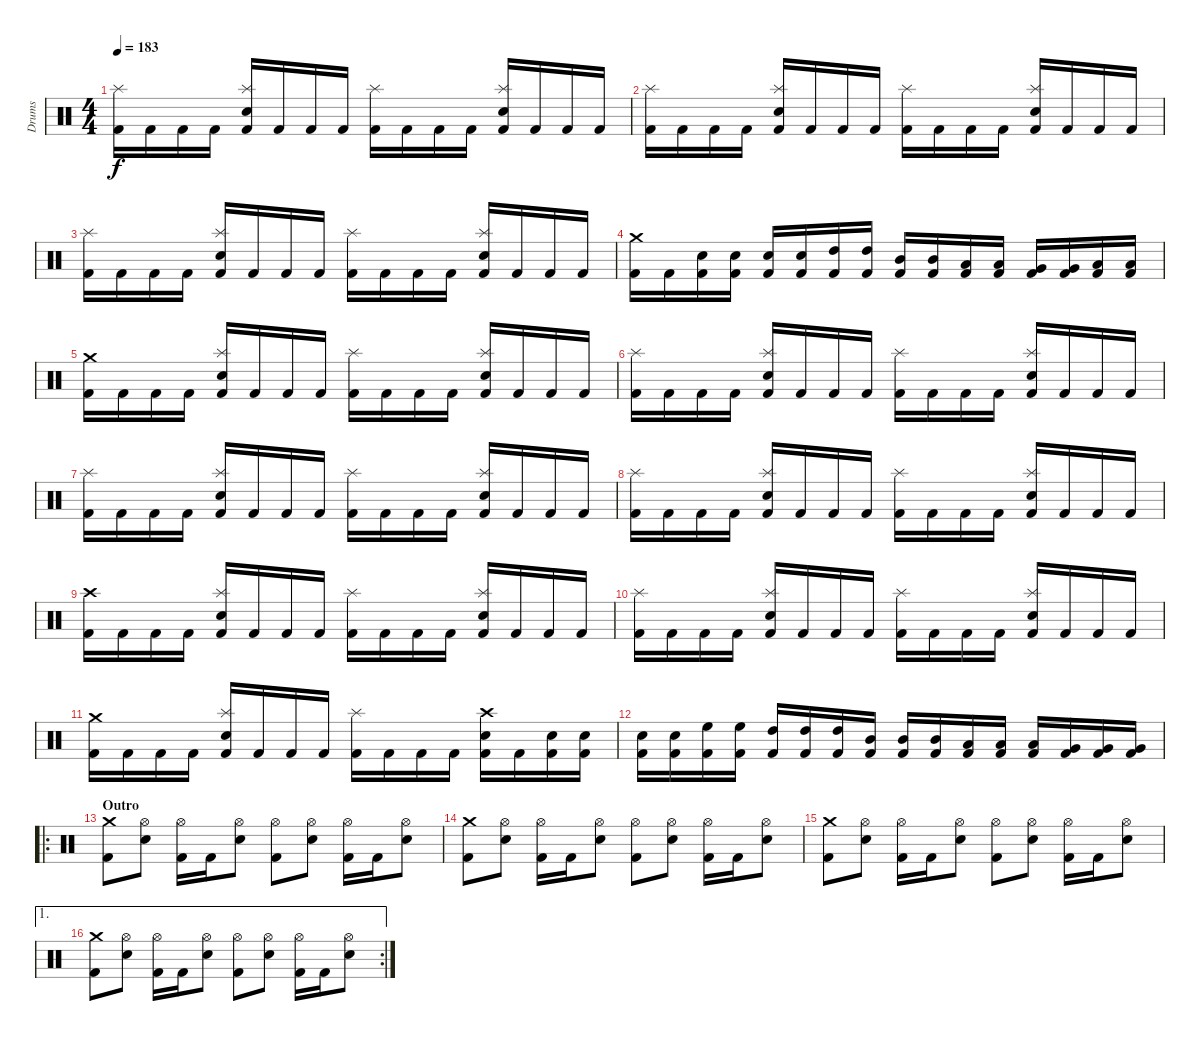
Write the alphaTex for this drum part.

\track ("Drums" "Drums") {instrument percussion}
\staff {score}
\articulation defaults
\ts (4 4)
\tempo 183
\clef neutral
\ks c
("Kick (hit) 2" "Splash (hit)").16{dy f} "Kick (hit) 2".16 "Kick (hit) 2".16 "Kick (hit) 2".16 ("Kick (hit) 2" "Electric Snare (hit)" "Splash (hit)").16 "Kick (hit) 2".16 "Kick (hit) 2".16 "Kick (hit) 2".16 ("Kick (hit) 2" "Splash (hit)").16 "Kick (hit) 2".16 "Kick (hit) 2".16 "Kick (hit) 2".16 ("Kick (hit) 2" "Electric Snare (hit)" "Splash (hit)").16 "Kick (hit) 2".16 "Kick (hit) 2".16 "Kick (hit) 2".16 |
("Kick (hit) 2" "Splash (hit)").16 "Kick (hit) 2".16 "Kick (hit) 2".16 "Kick (hit) 2".16 ("Kick (hit) 2" "Electric Snare (hit)" "Splash (hit)").16 "Kick (hit) 2".16 "Kick (hit) 2".16 "Kick (hit) 2".16 ("Kick (hit) 2" "Splash (hit)").16 "Kick (hit) 2".16 "Kick (hit) 2".16 "Kick (hit) 2".16 ("Kick (hit) 2" "Electric Snare (hit)" "Splash (hit)").16 "Kick (hit) 2".16 "Kick (hit) 2".16 "Kick (hit) 2".16 |
("Kick (hit) 2" "Splash (hit)").16 "Kick (hit) 2".16 "Kick (hit) 2".16 "Kick (hit) 2".16 ("Kick (hit) 2" "Electric Snare (hit)" "Splash (hit)").16 "Kick (hit) 2".16 "Kick (hit) 2".16 "Kick (hit) 2".16 ("Kick (hit) 2" "Splash (hit)").16 "Kick (hit) 2".16 "Kick (hit) 2".16 "Kick (hit) 2".16 ("Kick (hit) 2" "Electric Snare (hit)" "Splash (hit)").16 "Kick (hit) 2".16 "Kick (hit) 2".16 "Kick (hit) 2".16 |
("Kick (hit) 2" "Crash medium (hit)").16 "Kick (hit) 2".16 ("Kick (hit) 2" "Electric Snare (hit)").16 ("Kick (hit) 2" "Electric Snare (hit)").16 ("Kick (hit) 2" "Electric Snare (hit)").16 ("Kick (hit) 2" "Electric Snare (hit)").16 ("Kick (hit) 2" "High Tom (hit)").16 ("Kick (hit) 2" "High Tom (hit)").16 ("Kick (hit) 2" "Mid Tom (hit)").16 ("Kick (hit) 2" "Mid Tom (hit)").16 ("Kick (hit) 2" "Low Tom (hit)").16 ("Kick (hit) 2" "Low Tom (hit)").16 ("Kick (hit) 2" "Very Low Tom (hit)").16 ("Kick (hit) 2" "Very Low Tom (hit)").16 ("Kick (hit) 2" "Low Floor Tom (hit)").16 ("Kick (hit) 2" "Low Floor Tom (hit)").16 |
("Kick (hit) 2" "Crash medium (hit)").16 "Kick (hit) 2".16 "Kick (hit) 2".16 "Kick (hit) 2".16 ("Kick (hit) 2" "Electric Snare (hit)" "Splash (hit)").16 "Kick (hit) 2".16 "Kick (hit) 2".16 "Kick (hit) 2".16 ("Kick (hit) 2" "Splash (hit)").16 "Kick (hit) 2".16 "Kick (hit) 2".16 "Kick (hit) 2".16 ("Kick (hit) 2" "Electric Snare (hit)" "Splash (hit)").16 "Kick (hit) 2".16 "Kick (hit) 2".16 "Kick (hit) 2".16 |
("Kick (hit) 2" "Splash (hit)").16 "Kick (hit) 2".16 "Kick (hit) 2".16 "Kick (hit) 2".16 ("Kick (hit) 2" "Electric Snare (hit)" "Splash (hit)").16 "Kick (hit) 2".16 "Kick (hit) 2".16 "Kick (hit) 2".16 ("Kick (hit) 2" "Splash (hit)").16 "Kick (hit) 2".16 "Kick (hit) 2".16 "Kick (hit) 2".16 ("Kick (hit) 2" "Electric Snare (hit)" "Splash (hit)").16 "Kick (hit) 2".16 "Kick (hit) 2".16 "Kick (hit) 2".16 |
("Kick (hit) 2" "Splash (hit)").16 "Kick (hit) 2".16 "Kick (hit) 2".16 "Kick (hit) 2".16 ("Kick (hit) 2" "Electric Snare (hit)" "Splash (hit)").16 "Kick (hit) 2".16 "Kick (hit) 2".16 "Kick (hit) 2".16 ("Kick (hit) 2" "Splash (hit)").16 "Kick (hit) 2".16 "Kick (hit) 2".16 "Kick (hit) 2".16 ("Kick (hit) 2" "Electric Snare (hit)" "Splash (hit)").16 "Kick (hit) 2".16 "Kick (hit) 2".16 "Kick (hit) 2".16 |
("Kick (hit) 2" "Splash (hit)").16 "Kick (hit) 2".16 "Kick (hit) 2".16 "Kick (hit) 2".16 ("Kick (hit) 2" "Electric Snare (hit)" "Splash (hit)").16 "Kick (hit) 2".16 "Kick (hit) 2".16 "Kick (hit) 2".16 ("Kick (hit) 2" "Splash (hit)").16 "Kick (hit) 2".16 "Kick (hit) 2".16 "Kick (hit) 2".16 ("Kick (hit) 2" "Electric Snare (hit)" "Splash (hit)").16 "Kick (hit) 2".16 "Kick (hit) 2".16 "Kick (hit) 2".16 |
("Kick (hit) 2" "Crash high (hit)").16 "Kick (hit) 2".16 "Kick (hit) 2".16 "Kick (hit) 2".16 ("Kick (hit) 2" "Electric Snare (hit)" "Splash (hit)").16 "Kick (hit) 2".16 "Kick (hit) 2".16 "Kick (hit) 2".16 ("Kick (hit) 2" "Splash (hit)").16 "Kick (hit) 2".16 "Kick (hit) 2".16 "Kick (hit) 2".16 ("Kick (hit) 2" "Electric Snare (hit)" "Splash (hit)").16 "Kick (hit) 2".16 "Kick (hit) 2".16 "Kick (hit) 2".16 |
("Kick (hit) 2" "Splash (hit)").16 "Kick (hit) 2".16 "Kick (hit) 2".16 "Kick (hit) 2".16 ("Kick (hit) 2" "Electric Snare (hit)" "Splash (hit)").16 "Kick (hit) 2".16 "Kick (hit) 2".16 "Kick (hit) 2".16 ("Kick (hit) 2" "Splash (hit)").16 "Kick (hit) 2".16 "Kick (hit) 2".16 "Kick (hit) 2".16 ("Kick (hit) 2" "Electric Snare (hit)" "Splash (hit)").16 "Kick (hit) 2".16 "Kick (hit) 2".16 "Kick (hit) 2".16 |
("Kick (hit) 2" "Crash medium (hit)").16 "Kick (hit) 2".16 "Kick (hit) 2".16 "Kick (hit) 2".16 ("Kick (hit) 2" "Electric Snare (hit)" "Splash (hit)").16 "Kick (hit) 2".16 "Kick (hit) 2".16 "Kick (hit) 2".16 ("Kick (hit) 2" "Splash (hit)").16 "Kick (hit) 2".16 "Kick (hit) 2".16 "Kick (hit) 2".16 ("Kick (hit) 2" "Electric Snare (hit)" "Crash high (hit)").16 "Kick (hit) 2".16 ("Kick (hit) 2" "Electric Snare (hit)").16 ("Kick (hit) 2" "Electric Snare (hit)").16 |
("Kick (hit) 2" "Electric Snare (hit)").16 ("Kick (hit) 2" "Electric Snare (hit)").16 ("Kick (hit) 2" "High Floor Tom (hit)").16 ("Kick (hit) 2" "High Floor Tom (hit)").16 ("Kick (hit) 2" "High Tom (hit)").16 ("Kick (hit) 2" "High Tom (hit)").16 ("Kick (hit) 2" "High Tom (hit)").16 ("Kick (hit) 2" "Mid Tom (hit)").16 ("Kick (hit) 2" "Mid Tom (hit)").16 ("Kick (hit) 2" "Mid Tom (hit)").16 ("Kick (hit) 2" "Low Tom (hit)").16 ("Kick (hit) 2" "Low Tom (hit)").16 ("Kick (hit) 2" "Low Tom (hit)").16 ("Kick (hit) 2" "Very Low Tom (hit)").16 ("Kick (hit) 2" "Very Low Tom (hit)").16 ("Kick (hit) 2" "Very Low Tom (hit)").16 |
\ro
\section ("" "Outro")
("Kick (hit) 2" "Crash medium (hit)").8 ("Electric Snare (hit)" "Hi-Hat (open)").8 ("Kick (hit) 2" "Hi-Hat (open)").16 "Kick (hit) 2".16 ("Electric Snare (hit)" "Hi-Hat (open)").8 ("Kick (hit) 2" "Hi-Hat (open)").8 ("Electric Snare (hit)" "Hi-Hat (open)").8 ("Kick (hit) 2" "Hi-Hat (open)").16 "Kick (hit) 2".16 ("Electric Snare (hit)" "Hi-Hat (open)").8 |
("Kick (hit) 2" "Crash medium (hit)").8 ("Electric Snare (hit)" "Hi-Hat (open)").8 ("Kick (hit) 2" "Hi-Hat (open)").16 "Kick (hit) 2".16 ("Electric Snare (hit)" "Hi-Hat (open)").8 ("Kick (hit) 2" "Hi-Hat (open)").8 ("Electric Snare (hit)" "Hi-Hat (open)").8 ("Kick (hit) 2" "Hi-Hat (open)").16 "Kick (hit) 2".16 ("Electric Snare (hit)" "Hi-Hat (open)").8 |
("Kick (hit) 2" "Crash medium (hit)").8 ("Electric Snare (hit)" "Hi-Hat (open)").8 ("Kick (hit) 2" "Hi-Hat (open)").16 "Kick (hit) 2".16 ("Electric Snare (hit)" "Hi-Hat (open)").8 ("Kick (hit) 2" "Hi-Hat (open)").8 ("Electric Snare (hit)" "Hi-Hat (open)").8 ("Kick (hit) 2" "Hi-Hat (open)").16 "Kick (hit) 2".16 ("Electric Snare (hit)" "Hi-Hat (open)").8 |
\ae 1
\rc 2
("Kick (hit) 2" "Crash medium (hit)").8 ("Electric Snare (hit)" "Hi-Hat (open)").8 ("Kick (hit) 2" "Hi-Hat (open)").16 "Kick (hit) 2".16 ("Electric Snare (hit)" "Hi-Hat (open)").8 ("Kick (hit) 2" "Hi-Hat (open)").8 ("Electric Snare (hit)" "Hi-Hat (open)").8 ("Kick (hit) 2" "Hi-Hat (open)").16 "Kick (hit) 2".16 ("Electric Snare (hit)" "Hi-Hat (open)").8
